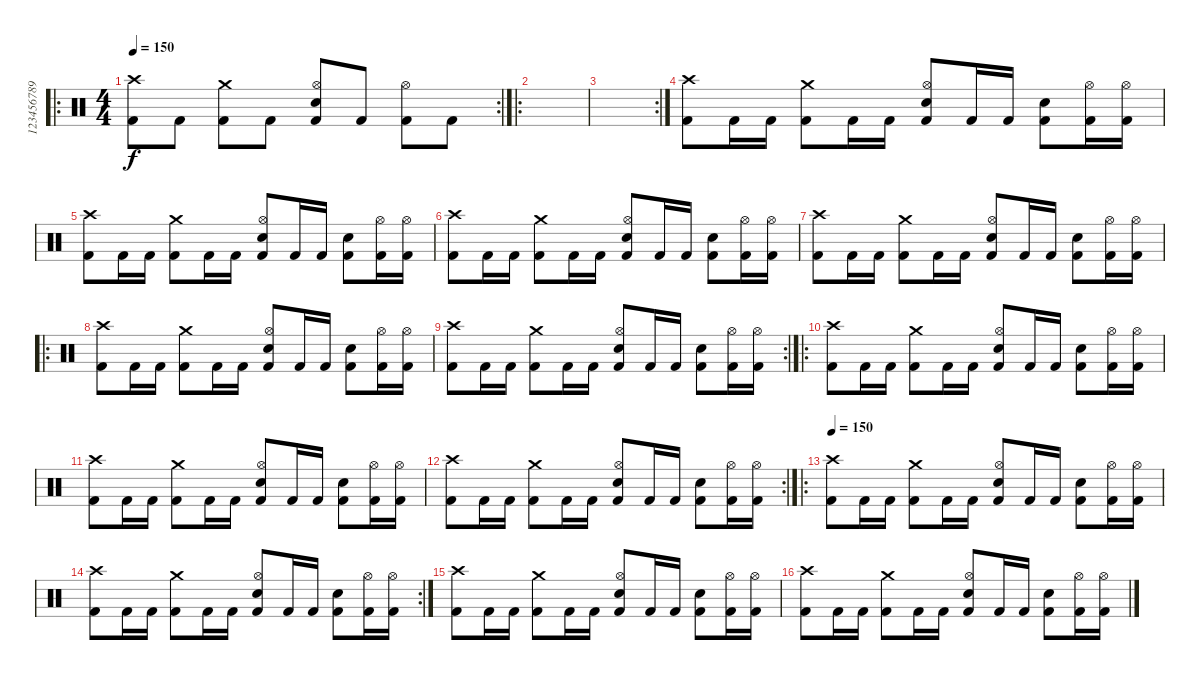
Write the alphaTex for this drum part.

\track ("123456789" "123456789") {instrument percussion}
\staff {score}
\articulation defaults
\ro
\rc 2
\ts (4 4)
\tempo 150
\clef neutral
\ks c
("Kick (hit) 2" "Crash high (hit)").8{dy f} "Kick (hit) 2".8 ("Kick (hit) 2" "Crash medium (hit)").8 "Kick (hit) 2".8 ("Kick (hit) 2" "Hi-Hat (open)" "Electric Snare (hit)").8 "Kick (hit) 2".8 ("Kick (hit) 2" "Hi-Hat (open)").8 "Kick (hit) 2".8 |
\ro
|
\rc 2
|
("Kick (hit) 2" "Crash high (hit)").8 "Kick (hit) 2".16 "Kick (hit) 2".16 ("Kick (hit) 2" "Crash medium (hit)").8 "Kick (hit) 2".16 "Kick (hit) 2".16 ("Kick (hit) 2" "Hi-Hat (open)" "Electric Snare (hit)").8 "Kick (hit) 2".16 "Kick (hit) 2".16 ("Kick (hit) 2" "Snare (hit) 2").8 ("Kick (hit) 2" "Hi-Hat (open)").16 ("Kick (hit) 2" "Hi-Hat (open)").16 |
("Kick (hit) 2" "Crash high (hit)").8 "Kick (hit) 2".16 "Kick (hit) 2".16 ("Kick (hit) 2" "Crash medium (hit)").8 "Kick (hit) 2".16 "Kick (hit) 2".16 ("Kick (hit) 2" "Hi-Hat (open)" "Electric Snare (hit)").8 "Kick (hit) 2".16 "Kick (hit) 2".16 ("Kick (hit) 2" "Snare (hit) 2").8 ("Kick (hit) 2" "Hi-Hat (open)").16 ("Kick (hit) 2" "Hi-Hat (open)").16 |
("Kick (hit) 2" "Crash high (hit)").8 "Kick (hit) 2".16 "Kick (hit) 2".16 ("Kick (hit) 2" "Crash medium (hit)").8 "Kick (hit) 2".16 "Kick (hit) 2".16 ("Kick (hit) 2" "Hi-Hat (open)" "Electric Snare (hit)").8 "Kick (hit) 2".16 "Kick (hit) 2".16 ("Kick (hit) 2" "Snare (hit) 2").8 ("Kick (hit) 2" "Hi-Hat (open)").16 ("Kick (hit) 2" "Hi-Hat (open)").16 |
("Kick (hit) 2" "Crash high (hit)").8 "Kick (hit) 2".16 "Kick (hit) 2".16 ("Kick (hit) 2" "Crash medium (hit)").8 "Kick (hit) 2".16 "Kick (hit) 2".16 ("Kick (hit) 2" "Hi-Hat (open)" "Electric Snare (hit)").8 "Kick (hit) 2".16 "Kick (hit) 2".16 ("Kick (hit) 2" "Snare (hit) 2").8 ("Kick (hit) 2" "Hi-Hat (open)").16 ("Kick (hit) 2" "Hi-Hat (open)").16 |
\ro
("Kick (hit) 2" "Crash high (hit)").8 "Kick (hit) 2".16 "Kick (hit) 2".16 ("Kick (hit) 2" "Crash medium (hit)").8 "Kick (hit) 2".16 "Kick (hit) 2".16 ("Kick (hit) 2" "Hi-Hat (open)" "Electric Snare (hit)").8 "Kick (hit) 2".16 "Kick (hit) 2".16 ("Kick (hit) 2" "Snare (hit) 2").8 ("Kick (hit) 2" "Hi-Hat (open)").16 ("Kick (hit) 2" "Hi-Hat (open)").16 |
\rc 2
("Kick (hit) 2" "Crash high (hit)").8 "Kick (hit) 2".16 "Kick (hit) 2".16 ("Kick (hit) 2" "Crash medium (hit)").8 "Kick (hit) 2".16 "Kick (hit) 2".16 ("Kick (hit) 2" "Hi-Hat (open)" "Electric Snare (hit)").8 "Kick (hit) 2".16 "Kick (hit) 2".16 ("Kick (hit) 2" "Snare (hit) 2").8 ("Kick (hit) 2" "Hi-Hat (open)").16 ("Kick (hit) 2" "Hi-Hat (open)").16 |
\ro
("Kick (hit) 2" "Crash high (hit)").8 "Kick (hit) 2".16 "Kick (hit) 2".16 ("Kick (hit) 2" "Crash medium (hit)").8 "Kick (hit) 2".16 "Kick (hit) 2".16 ("Kick (hit) 2" "Hi-Hat (open)" "Electric Snare (hit)").8 "Kick (hit) 2".16 "Kick (hit) 2".16 ("Kick (hit) 2" "Snare (hit) 2").8 ("Kick (hit) 2" "Hi-Hat (open)").16 ("Kick (hit) 2" "Hi-Hat (open)").16 |
("Kick (hit) 2" "Crash high (hit)").8 "Kick (hit) 2".16 "Kick (hit) 2".16 ("Kick (hit) 2" "Crash medium (hit)").8 "Kick (hit) 2".16 "Kick (hit) 2".16 ("Kick (hit) 2" "Hi-Hat (open)" "Electric Snare (hit)").8 "Kick (hit) 2".16 "Kick (hit) 2".16 ("Kick (hit) 2" "Snare (hit) 2").8 ("Kick (hit) 2" "Hi-Hat (open)").16 ("Kick (hit) 2" "Hi-Hat (open)").16 |
\rc 2
("Kick (hit) 2" "Crash high (hit)").8 "Kick (hit) 2".16 "Kick (hit) 2".16 ("Kick (hit) 2" "Crash medium (hit)").8 "Kick (hit) 2".16 "Kick (hit) 2".16 ("Kick (hit) 2" "Hi-Hat (open)" "Electric Snare (hit)").8 "Kick (hit) 2".16 "Kick (hit) 2".16 ("Kick (hit) 2" "Snare (hit) 2").8 ("Kick (hit) 2" "Hi-Hat (open)").16 ("Kick (hit) 2" "Hi-Hat (open)").16 |
\ro
\tempo 150
("Kick (hit) 2" "Crash high (hit)").8 "Kick (hit) 2".16 "Kick (hit) 2".16 ("Kick (hit) 2" "Crash medium (hit)").8 "Kick (hit) 2".16 "Kick (hit) 2".16 ("Kick (hit) 2" "Hi-Hat (open)" "Electric Snare (hit)").8 "Kick (hit) 2".16 "Kick (hit) 2".16 ("Kick (hit) 2" "Snare (hit) 2").8 ("Kick (hit) 2" "Hi-Hat (open)").16 ("Kick (hit) 2" "Hi-Hat (open)").16 |
\rc 2
("Kick (hit) 2" "Crash high (hit)").8 "Kick (hit) 2".16 "Kick (hit) 2".16 ("Kick (hit) 2" "Crash medium (hit)").8 "Kick (hit) 2".16 "Kick (hit) 2".16 ("Kick (hit) 2" "Hi-Hat (open)" "Electric Snare (hit)").8 "Kick (hit) 2".16 "Kick (hit) 2".16 ("Kick (hit) 2" "Snare (hit) 2").8 ("Kick (hit) 2" "Hi-Hat (open)").16 ("Kick (hit) 2" "Hi-Hat (open)").16 |
("Kick (hit) 2" "Crash high (hit)").8 "Kick (hit) 2".16 "Kick (hit) 2".16 ("Kick (hit) 2" "Crash medium (hit)").8 "Kick (hit) 2".16 "Kick (hit) 2".16 ("Kick (hit) 2" "Hi-Hat (open)" "Electric Snare (hit)").8 "Kick (hit) 2".16 "Kick (hit) 2".16 ("Kick (hit) 2" "Snare (hit) 2").8 ("Kick (hit) 2" "Hi-Hat (open)").16 ("Kick (hit) 2" "Hi-Hat (open)").16 |
("Kick (hit) 2" "Crash high (hit)").8 "Kick (hit) 2".16 "Kick (hit) 2".16 ("Kick (hit) 2" "Crash medium (hit)").8 "Kick (hit) 2".16 "Kick (hit) 2".16 ("Kick (hit) 2" "Hi-Hat (open)" "Electric Snare (hit)").8 "Kick (hit) 2".16 "Kick (hit) 2".16 ("Kick (hit) 2" "Snare (hit) 2").8 ("Kick (hit) 2" "Hi-Hat (open)").16 ("Kick (hit) 2" "Hi-Hat (open)").16
